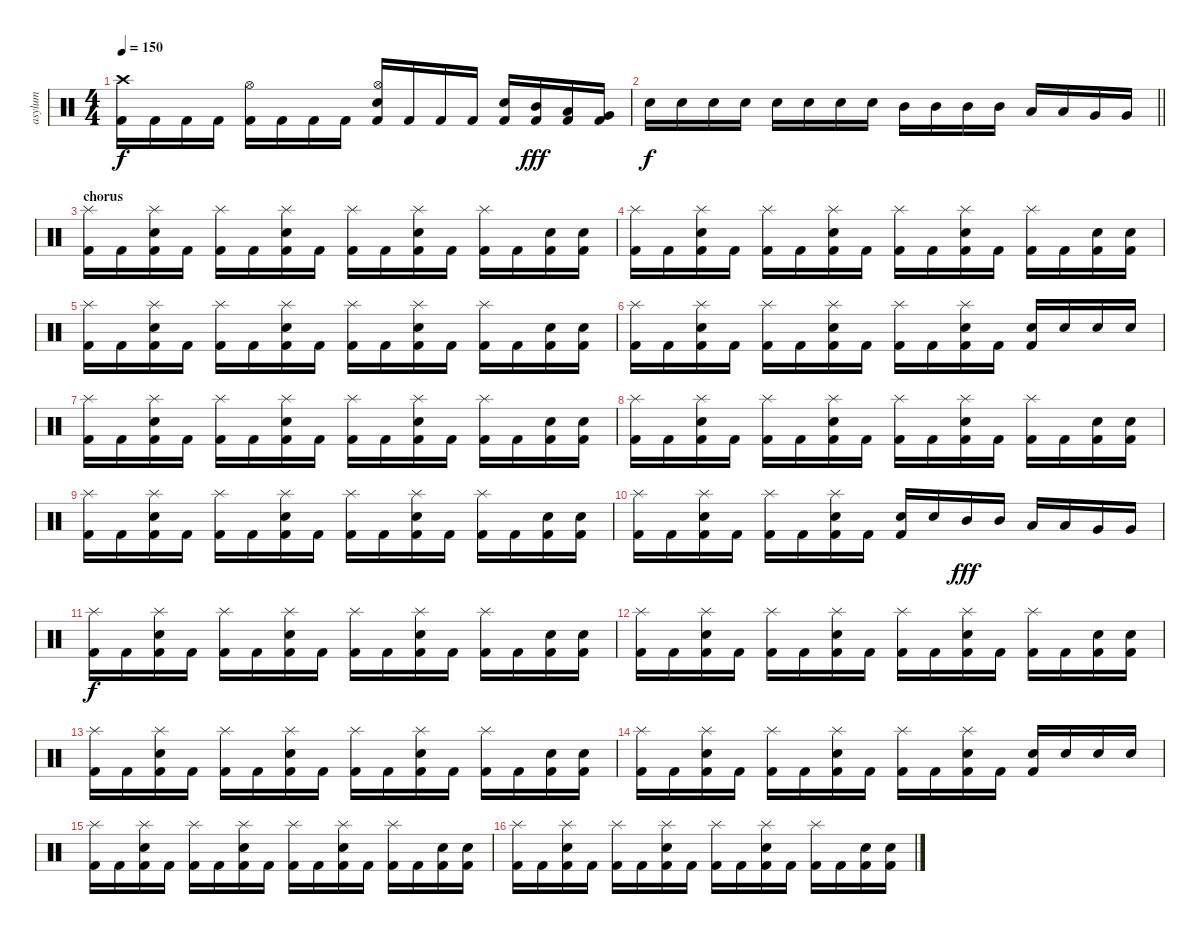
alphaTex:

\track ("asylum" "asylum") {instrument percussion}
\staff {score}
\articulation defaults
\ts (4 4)
\tempo 150
\clef neutral
\ks c
("Crash high (hit)" "Kick (hit) 2").16{dy f} "Kick (hit) 2".16 "Kick (hit) 2".16 "Kick (hit) 2".16 ("Hi-Hat (open)" "Kick (hit) 2").16 "Kick (hit) 2".16 "Kick (hit) 2".16 "Kick (hit) 2".16 ("Hi-Hat (open)" "Electric Snare (hit)" "Kick (hit) 2").16 "Kick (hit) 2".16 "Kick (hit) 2".16 "Kick (hit) 2".16 ("Electric Snare (hit)" "Kick (hit) 2").16 ("Mid Tom (hit)" "Kick (hit) 2").16{dy fff} ("Low Tom (hit)" "Kick (hit) 2").16 ("Very Low Tom (hit)" "Kick (hit) 2").16 |
\barLineRight lightlight "Electric Snare (hit)".16{dy f} "Electric Snare (hit)".16 "Electric Snare (hit)".16 "Electric Snare (hit)".16 "Electric Snare (hit)".16 "Electric Snare (hit)".16 "Electric Snare (hit)".16 "Electric Snare (hit)".16 "Mid Tom (hit)".16 "Mid Tom (hit)".16 "Mid Tom (hit)".16 "Mid Tom (hit)".16 "Low Tom (hit)".16 "Low Tom (hit)".16 "Very Low Tom (hit)".16 "Very Low Tom (hit)".16
|
\section ("" "chorus")
("Splash (hit)" "Kick (hit) 2").16 "Kick (hit) 2".16 ("Splash (hit)" "Electric Snare (hit)" "Kick (hit) 2").16 "Kick (hit) 2".16 ("Splash (hit)" "Kick (hit) 2").16 "Kick (hit) 2".16 ("Splash (hit)" "Electric Snare (hit)" "Kick (hit) 2").16 "Kick (hit) 2".16 ("Splash (hit)" "Kick (hit) 2").16 "Kick (hit) 2".16 ("Splash (hit)" "Electric Snare (hit)" "Kick (hit) 2").16 "Kick (hit) 2".16 ("Splash (hit)" "Kick (hit) 2").16 "Kick (hit) 2".16 ("Electric Snare (hit)" "Kick (hit) 2").16 ("Electric Snare (hit)" "Kick (hit) 2").16 |
("Splash (hit)" "Kick (hit) 2").16 "Kick (hit) 2".16 ("Splash (hit)" "Electric Snare (hit)" "Kick (hit) 2").16 "Kick (hit) 2".16 ("Splash (hit)" "Kick (hit) 2").16 "Kick (hit) 2".16 ("Splash (hit)" "Electric Snare (hit)" "Kick (hit) 2").16 "Kick (hit) 2".16 ("Splash (hit)" "Kick (hit) 2").16 "Kick (hit) 2".16 ("Splash (hit)" "Electric Snare (hit)" "Kick (hit) 2").16 "Kick (hit) 2".16 ("Splash (hit)" "Kick (hit) 2").16 "Kick (hit) 2".16 ("Electric Snare (hit)" "Kick (hit) 2").16 ("Electric Snare (hit)" "Kick (hit) 2").16 |
("Splash (hit)" "Kick (hit) 2").16 "Kick (hit) 2".16 ("Splash (hit)" "Electric Snare (hit)" "Kick (hit) 2").16 "Kick (hit) 2".16 ("Splash (hit)" "Kick (hit) 2").16 "Kick (hit) 2".16 ("Splash (hit)" "Electric Snare (hit)" "Kick (hit) 2").16 "Kick (hit) 2".16 ("Splash (hit)" "Kick (hit) 2").16 "Kick (hit) 2".16 ("Splash (hit)" "Electric Snare (hit)" "Kick (hit) 2").16 "Kick (hit) 2".16 ("Splash (hit)" "Kick (hit) 2").16 "Kick (hit) 2".16 ("Electric Snare (hit)" "Kick (hit) 2").16 ("Electric Snare (hit)" "Kick (hit) 2").16 |
("Splash (hit)" "Kick (hit) 2").16 "Kick (hit) 2".16 ("Splash (hit)" "Electric Snare (hit)" "Kick (hit) 2").16 "Kick (hit) 2".16 ("Splash (hit)" "Kick (hit) 2").16 "Kick (hit) 2".16 ("Splash (hit)" "Electric Snare (hit)" "Kick (hit) 2").16 "Kick (hit) 2".16 ("Splash (hit)" "Kick (hit) 2").16 "Kick (hit) 2".16 ("Splash (hit)" "Electric Snare (hit)" "Kick (hit) 2").16 "Kick (hit) 2".16 ("Electric Snare (hit)" "Kick (hit) 2").16 "Electric Snare (hit)".16 "Electric Snare (hit)".16 "Electric Snare (hit)".16 |
("Splash (hit)" "Kick (hit) 2").16 "Kick (hit) 2".16 ("Splash (hit)" "Electric Snare (hit)" "Kick (hit) 2").16 "Kick (hit) 2".16 ("Splash (hit)" "Kick (hit) 2").16 "Kick (hit) 2".16 ("Splash (hit)" "Electric Snare (hit)" "Kick (hit) 2").16 "Kick (hit) 2".16 ("Splash (hit)" "Kick (hit) 2").16 "Kick (hit) 2".16 ("Splash (hit)" "Electric Snare (hit)" "Kick (hit) 2").16 "Kick (hit) 2".16 ("Splash (hit)" "Kick (hit) 2").16 "Kick (hit) 2".16 ("Electric Snare (hit)" "Kick (hit) 2").16 ("Electric Snare (hit)" "Kick (hit) 2").16 |
("Splash (hit)" "Kick (hit) 2").16 "Kick (hit) 2".16 ("Splash (hit)" "Electric Snare (hit)" "Kick (hit) 2").16 "Kick (hit) 2".16 ("Splash (hit)" "Kick (hit) 2").16 "Kick (hit) 2".16 ("Splash (hit)" "Electric Snare (hit)" "Kick (hit) 2").16 "Kick (hit) 2".16 ("Splash (hit)" "Kick (hit) 2").16 "Kick (hit) 2".16 ("Splash (hit)" "Electric Snare (hit)" "Kick (hit) 2").16 "Kick (hit) 2".16 ("Splash (hit)" "Kick (hit) 2").16 "Kick (hit) 2".16 ("Electric Snare (hit)" "Kick (hit) 2").16 ("Electric Snare (hit)" "Kick (hit) 2").16 |
("Splash (hit)" "Kick (hit) 2").16 "Kick (hit) 2".16 ("Splash (hit)" "Electric Snare (hit)" "Kick (hit) 2").16 "Kick (hit) 2".16 ("Splash (hit)" "Kick (hit) 2").16 "Kick (hit) 2".16 ("Splash (hit)" "Electric Snare (hit)" "Kick (hit) 2").16 "Kick (hit) 2".16 ("Splash (hit)" "Kick (hit) 2").16 "Kick (hit) 2".16 ("Splash (hit)" "Electric Snare (hit)" "Kick (hit) 2").16 "Kick (hit) 2".16 ("Splash (hit)" "Kick (hit) 2").16 "Kick (hit) 2".16 ("Electric Snare (hit)" "Kick (hit) 2").16 ("Electric Snare (hit)" "Kick (hit) 2").16 |
("Splash (hit)" "Kick (hit) 2").16 "Kick (hit) 2".16 ("Splash (hit)" "Electric Snare (hit)" "Kick (hit) 2").16 "Kick (hit) 2".16 ("Splash (hit)" "Kick (hit) 2").16 "Kick (hit) 2".16 ("Splash (hit)" "Electric Snare (hit)" "Kick (hit) 2").16 "Kick (hit) 2".16 ("Electric Snare (hit)" "Kick (hit) 2").16 "Electric Snare (hit)".16 "Mid Tom (hit)".16{dy fff} "Mid Tom (hit)".16 "Low Tom (hit)".16 "Low Tom (hit)".16 "Very Low Tom (hit)".16 "Very Low Tom (hit)".16 |
("Splash (hit)" "Kick (hit) 2").16{dy f} "Kick (hit) 2".16 ("Splash (hit)" "Electric Snare (hit)" "Kick (hit) 2").16 "Kick (hit) 2".16 ("Splash (hit)" "Kick (hit) 2").16 "Kick (hit) 2".16 ("Splash (hit)" "Electric Snare (hit)" "Kick (hit) 2").16 "Kick (hit) 2".16 ("Splash (hit)" "Kick (hit) 2").16 "Kick (hit) 2".16 ("Splash (hit)" "Electric Snare (hit)" "Kick (hit) 2").16 "Kick (hit) 2".16 ("Splash (hit)" "Kick (hit) 2").16 "Kick (hit) 2".16 ("Electric Snare (hit)" "Kick (hit) 2").16 ("Electric Snare (hit)" "Kick (hit) 2").16 |
("Splash (hit)" "Kick (hit) 2").16 "Kick (hit) 2".16 ("Splash (hit)" "Electric Snare (hit)" "Kick (hit) 2").16 "Kick (hit) 2".16 ("Splash (hit)" "Kick (hit) 2").16 "Kick (hit) 2".16 ("Splash (hit)" "Electric Snare (hit)" "Kick (hit) 2").16 "Kick (hit) 2".16 ("Splash (hit)" "Kick (hit) 2").16 "Kick (hit) 2".16 ("Splash (hit)" "Electric Snare (hit)" "Kick (hit) 2").16 "Kick (hit) 2".16 ("Splash (hit)" "Kick (hit) 2").16 "Kick (hit) 2".16 ("Electric Snare (hit)" "Kick (hit) 2").16 ("Electric Snare (hit)" "Kick (hit) 2").16 |
("Splash (hit)" "Kick (hit) 2").16 "Kick (hit) 2".16 ("Splash (hit)" "Electric Snare (hit)" "Kick (hit) 2").16 "Kick (hit) 2".16 ("Splash (hit)" "Kick (hit) 2").16 "Kick (hit) 2".16 ("Splash (hit)" "Electric Snare (hit)" "Kick (hit) 2").16 "Kick (hit) 2".16 ("Splash (hit)" "Kick (hit) 2").16 "Kick (hit) 2".16 ("Splash (hit)" "Electric Snare (hit)" "Kick (hit) 2").16 "Kick (hit) 2".16 ("Splash (hit)" "Kick (hit) 2").16 "Kick (hit) 2".16 ("Electric Snare (hit)" "Kick (hit) 2").16 ("Electric Snare (hit)" "Kick (hit) 2").16 |
("Splash (hit)" "Kick (hit) 2").16 "Kick (hit) 2".16 ("Splash (hit)" "Electric Snare (hit)" "Kick (hit) 2").16 "Kick (hit) 2".16 ("Splash (hit)" "Kick (hit) 2").16 "Kick (hit) 2".16 ("Splash (hit)" "Electric Snare (hit)" "Kick (hit) 2").16 "Kick (hit) 2".16 ("Splash (hit)" "Kick (hit) 2").16 "Kick (hit) 2".16 ("Splash (hit)" "Electric Snare (hit)" "Kick (hit) 2").16 "Kick (hit) 2".16 ("Electric Snare (hit)" "Kick (hit) 2").16 "Electric Snare (hit)".16 "Electric Snare (hit)".16 "Electric Snare (hit)".16 |
("Splash (hit)" "Kick (hit) 2").16 "Kick (hit) 2".16 ("Splash (hit)" "Electric Snare (hit)" "Kick (hit) 2").16 "Kick (hit) 2".16 ("Splash (hit)" "Kick (hit) 2").16 "Kick (hit) 2".16 ("Splash (hit)" "Electric Snare (hit)" "Kick (hit) 2").16 "Kick (hit) 2".16 ("Splash (hit)" "Kick (hit) 2").16 "Kick (hit) 2".16 ("Splash (hit)" "Electric Snare (hit)" "Kick (hit) 2").16 "Kick (hit) 2".16 ("Splash (hit)" "Kick (hit) 2").16 "Kick (hit) 2".16 ("Electric Snare (hit)" "Kick (hit) 2").16 ("Electric Snare (hit)" "Kick (hit) 2").16 |
("Splash (hit)" "Kick (hit) 2").16 "Kick (hit) 2".16 ("Splash (hit)" "Electric Snare (hit)" "Kick (hit) 2").16 "Kick (hit) 2".16 ("Splash (hit)" "Kick (hit) 2").16 "Kick (hit) 2".16 ("Splash (hit)" "Electric Snare (hit)" "Kick (hit) 2").16 "Kick (hit) 2".16 ("Splash (hit)" "Kick (hit) 2").16 "Kick (hit) 2".16 ("Splash (hit)" "Electric Snare (hit)" "Kick (hit) 2").16 "Kick (hit) 2".16 ("Splash (hit)" "Kick (hit) 2").16 "Kick (hit) 2".16 ("Electric Snare (hit)" "Kick (hit) 2").16 ("Electric Snare (hit)" "Kick (hit) 2").16
